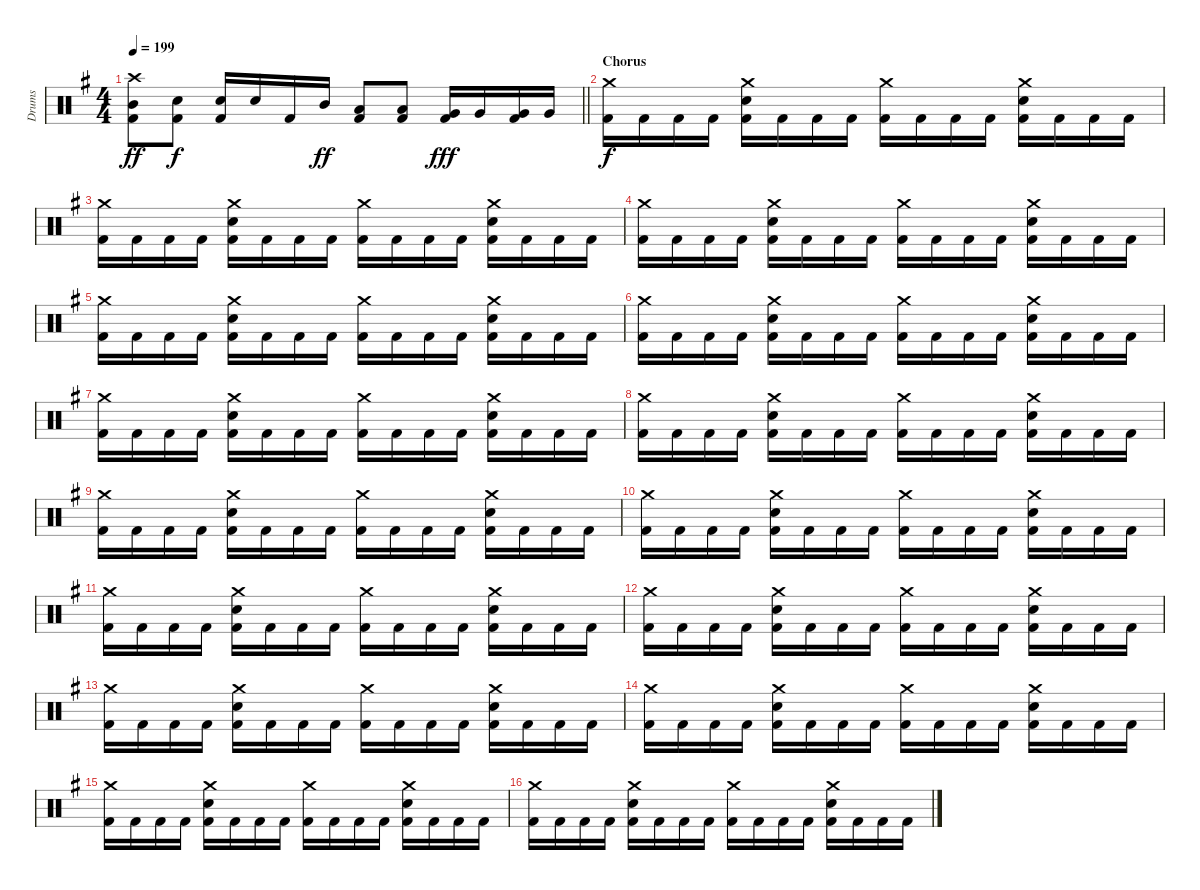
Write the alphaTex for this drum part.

\track ("Drums" "Drums") {instrument percussion}
\staff {score}
\articulation defaults
\ts (4 4)
\tempo 199
\clef neutral
\barLineRight lightlight
\ks eminor
("Crash high (hit)" "Mid Tom (hit)" "Kick (hit) 2").8{dy ff} ("Electric Snare (hit)" "Kick (hit) 2").8{dy f} ("Electric Snare (hit)" "Kick (hit) 2").16 "Electric Snare (hit)".16 "Kick (hit) 2".16 "Mid Tom (hit)".16{dy ff} ("Low Tom (hit)" "Kick (hit) 2").8 ("Low Tom (hit)" "Kick (hit) 2").8 ("Very Low Tom (hit)" "Kick (hit) 2").16{dy fff} "Very Low Tom (hit)".16 ("Very Low Tom (hit)" "Kick (hit) 2").16 "Very Low Tom (hit)".16 |
\section ("" "Chorus")
("Crash medium (hit)" "Kick (hit) 2").16{dy f} "Kick (hit) 2".16 "Kick (hit) 2".16 "Kick (hit) 2".16 ("Crash medium (hit)" "Electric Snare (hit)" "Kick (hit) 2").16 "Kick (hit) 2".16 "Kick (hit) 2".16 "Kick (hit) 2".16 ("Crash medium (hit)" "Kick (hit) 2").16 "Kick (hit) 2".16 "Kick (hit) 2".16 "Kick (hit) 2".16 ("Crash medium (hit)" "Electric Snare (hit)" "Kick (hit) 2").16 "Kick (hit) 2".16 "Kick (hit) 2".16 "Kick (hit) 2".16 |
("Crash medium (hit)" "Kick (hit) 2").16 "Kick (hit) 2".16 "Kick (hit) 2".16 "Kick (hit) 2".16 ("Crash medium (hit)" "Electric Snare (hit)" "Kick (hit) 2").16 "Kick (hit) 2".16 "Kick (hit) 2".16 "Kick (hit) 2".16 ("Crash medium (hit)" "Kick (hit) 2").16 "Kick (hit) 2".16 "Kick (hit) 2".16 "Kick (hit) 2".16 ("Crash medium (hit)" "Electric Snare (hit)" "Kick (hit) 2").16 "Kick (hit) 2".16 "Kick (hit) 2".16 "Kick (hit) 2".16 |
("Crash medium (hit)" "Kick (hit) 2").16 "Kick (hit) 2".16 "Kick (hit) 2".16 "Kick (hit) 2".16 ("Crash medium (hit)" "Electric Snare (hit)" "Kick (hit) 2").16 "Kick (hit) 2".16 "Kick (hit) 2".16 "Kick (hit) 2".16 ("Crash medium (hit)" "Kick (hit) 2").16 "Kick (hit) 2".16 "Kick (hit) 2".16 "Kick (hit) 2".16 ("Crash medium (hit)" "Electric Snare (hit)" "Kick (hit) 2").16 "Kick (hit) 2".16 "Kick (hit) 2".16 "Kick (hit) 2".16 |
("Crash medium (hit)" "Kick (hit) 2").16 "Kick (hit) 2".16 "Kick (hit) 2".16 "Kick (hit) 2".16 ("Crash medium (hit)" "Electric Snare (hit)" "Kick (hit) 2").16 "Kick (hit) 2".16 "Kick (hit) 2".16 "Kick (hit) 2".16 ("Crash medium (hit)" "Kick (hit) 2").16 "Kick (hit) 2".16 "Kick (hit) 2".16 "Kick (hit) 2".16 ("Crash medium (hit)" "Electric Snare (hit)" "Kick (hit) 2").16 "Kick (hit) 2".16 "Kick (hit) 2".16 "Kick (hit) 2".16 |
("Crash medium (hit)" "Kick (hit) 2").16 "Kick (hit) 2".16 "Kick (hit) 2".16 "Kick (hit) 2".16 ("Crash medium (hit)" "Electric Snare (hit)" "Kick (hit) 2").16 "Kick (hit) 2".16 "Kick (hit) 2".16 "Kick (hit) 2".16 ("Crash medium (hit)" "Kick (hit) 2").16 "Kick (hit) 2".16 "Kick (hit) 2".16 "Kick (hit) 2".16 ("Crash medium (hit)" "Electric Snare (hit)" "Kick (hit) 2").16 "Kick (hit) 2".16 "Kick (hit) 2".16 "Kick (hit) 2".16 |
("Crash medium (hit)" "Kick (hit) 2").16 "Kick (hit) 2".16 "Kick (hit) 2".16 "Kick (hit) 2".16 ("Crash medium (hit)" "Electric Snare (hit)" "Kick (hit) 2").16 "Kick (hit) 2".16 "Kick (hit) 2".16 "Kick (hit) 2".16 ("Crash medium (hit)" "Kick (hit) 2").16 "Kick (hit) 2".16 "Kick (hit) 2".16 "Kick (hit) 2".16 ("Crash medium (hit)" "Electric Snare (hit)" "Kick (hit) 2").16 "Kick (hit) 2".16 "Kick (hit) 2".16 "Kick (hit) 2".16 |
("Crash medium (hit)" "Kick (hit) 2").16 "Kick (hit) 2".16 "Kick (hit) 2".16 "Kick (hit) 2".16 ("Crash medium (hit)" "Electric Snare (hit)" "Kick (hit) 2").16 "Kick (hit) 2".16 "Kick (hit) 2".16 "Kick (hit) 2".16 ("Crash medium (hit)" "Kick (hit) 2").16 "Kick (hit) 2".16 "Kick (hit) 2".16 "Kick (hit) 2".16 ("Crash medium (hit)" "Electric Snare (hit)" "Kick (hit) 2").16 "Kick (hit) 2".16 "Kick (hit) 2".16 "Kick (hit) 2".16 |
("Crash medium (hit)" "Kick (hit) 2").16 "Kick (hit) 2".16 "Kick (hit) 2".16 "Kick (hit) 2".16 ("Crash medium (hit)" "Electric Snare (hit)" "Kick (hit) 2").16 "Kick (hit) 2".16 "Kick (hit) 2".16 "Kick (hit) 2".16 ("Crash medium (hit)" "Kick (hit) 2").16 "Kick (hit) 2".16 "Kick (hit) 2".16 "Kick (hit) 2".16 ("Crash medium (hit)" "Electric Snare (hit)" "Kick (hit) 2").16 "Kick (hit) 2".16 "Kick (hit) 2".16 "Kick (hit) 2".16 |
("Crash medium (hit)" "Kick (hit) 2").16 "Kick (hit) 2".16 "Kick (hit) 2".16 "Kick (hit) 2".16 ("Crash medium (hit)" "Electric Snare (hit)" "Kick (hit) 2").16 "Kick (hit) 2".16 "Kick (hit) 2".16 "Kick (hit) 2".16 ("Crash medium (hit)" "Kick (hit) 2").16 "Kick (hit) 2".16 "Kick (hit) 2".16 "Kick (hit) 2".16 ("Crash medium (hit)" "Electric Snare (hit)" "Kick (hit) 2").16 "Kick (hit) 2".16 "Kick (hit) 2".16 "Kick (hit) 2".16 |
("Crash medium (hit)" "Kick (hit) 2").16 "Kick (hit) 2".16 "Kick (hit) 2".16 "Kick (hit) 2".16 ("Crash medium (hit)" "Electric Snare (hit)" "Kick (hit) 2").16 "Kick (hit) 2".16 "Kick (hit) 2".16 "Kick (hit) 2".16 ("Crash medium (hit)" "Kick (hit) 2").16 "Kick (hit) 2".16 "Kick (hit) 2".16 "Kick (hit) 2".16 ("Crash medium (hit)" "Electric Snare (hit)" "Kick (hit) 2").16 "Kick (hit) 2".16 "Kick (hit) 2".16 "Kick (hit) 2".16 |
("Crash medium (hit)" "Kick (hit) 2").16 "Kick (hit) 2".16 "Kick (hit) 2".16 "Kick (hit) 2".16 ("Crash medium (hit)" "Electric Snare (hit)" "Kick (hit) 2").16 "Kick (hit) 2".16 "Kick (hit) 2".16 "Kick (hit) 2".16 ("Crash medium (hit)" "Kick (hit) 2").16 "Kick (hit) 2".16 "Kick (hit) 2".16 "Kick (hit) 2".16 ("Crash medium (hit)" "Electric Snare (hit)" "Kick (hit) 2").16 "Kick (hit) 2".16 "Kick (hit) 2".16 "Kick (hit) 2".16 |
("Crash medium (hit)" "Kick (hit) 2").16 "Kick (hit) 2".16 "Kick (hit) 2".16 "Kick (hit) 2".16 ("Crash medium (hit)" "Electric Snare (hit)" "Kick (hit) 2").16 "Kick (hit) 2".16 "Kick (hit) 2".16 "Kick (hit) 2".16 ("Crash medium (hit)" "Kick (hit) 2").16 "Kick (hit) 2".16 "Kick (hit) 2".16 "Kick (hit) 2".16 ("Crash medium (hit)" "Electric Snare (hit)" "Kick (hit) 2").16 "Kick (hit) 2".16 "Kick (hit) 2".16 "Kick (hit) 2".16 |
("Crash medium (hit)" "Kick (hit) 2").16 "Kick (hit) 2".16 "Kick (hit) 2".16 "Kick (hit) 2".16 ("Crash medium (hit)" "Electric Snare (hit)" "Kick (hit) 2").16 "Kick (hit) 2".16 "Kick (hit) 2".16 "Kick (hit) 2".16 ("Crash medium (hit)" "Kick (hit) 2").16 "Kick (hit) 2".16 "Kick (hit) 2".16 "Kick (hit) 2".16 ("Crash medium (hit)" "Electric Snare (hit)" "Kick (hit) 2").16 "Kick (hit) 2".16 "Kick (hit) 2".16 "Kick (hit) 2".16 |
("Crash medium (hit)" "Kick (hit) 2").16 "Kick (hit) 2".16 "Kick (hit) 2".16 "Kick (hit) 2".16 ("Crash medium (hit)" "Electric Snare (hit)" "Kick (hit) 2").16 "Kick (hit) 2".16 "Kick (hit) 2".16 "Kick (hit) 2".16 ("Crash medium (hit)" "Kick (hit) 2").16 "Kick (hit) 2".16 "Kick (hit) 2".16 "Kick (hit) 2".16 ("Crash medium (hit)" "Electric Snare (hit)" "Kick (hit) 2").16 "Kick (hit) 2".16 "Kick (hit) 2".16 "Kick (hit) 2".16 |
("Crash medium (hit)" "Kick (hit) 2").16 "Kick (hit) 2".16 "Kick (hit) 2".16 "Kick (hit) 2".16 ("Crash medium (hit)" "Electric Snare (hit)" "Kick (hit) 2").16 "Kick (hit) 2".16 "Kick (hit) 2".16 "Kick (hit) 2".16 ("Crash medium (hit)" "Kick (hit) 2").16 "Kick (hit) 2".16 "Kick (hit) 2".16 "Kick (hit) 2".16 ("Crash medium (hit)" "Electric Snare (hit)" "Kick (hit) 2").16 "Kick (hit) 2".16 "Kick (hit) 2".16 "Kick (hit) 2".16
